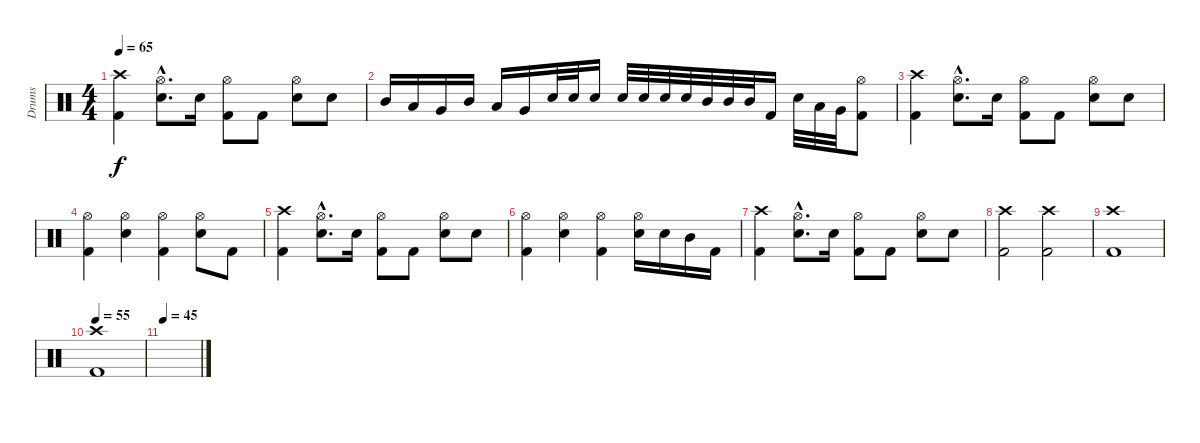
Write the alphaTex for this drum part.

\track ("Drums" "Drums") {instrument percussion}
\staff {score}
\articulation defaults
\ts (4 4)
\tempo 65
\clef neutral
\ks c
("Crash high (hit)" "Kick (hit) 2").4{dy f} ("Hi-Hat (open)"{hac} "Snare (hit) 2"{hac}).8{d} "Snare (hit) 2".16 ("Hi-Hat (open)" "Kick (hit) 2").8 "Kick (hit) 2".8 ("Hi-Hat (open)" "Snare (hit) 2").8 "Snare (hit) 2".8 |
"Mid Tom (hit)".16 "Low Tom (hit)".16 "Very Low Tom (hit)".16 "Mid Tom (hit)".16 "Low Tom (hit)".16 "Very Low Tom (hit)".16 "Snare (hit) 2".32 "Snare (hit) 2".32 "Snare (hit) 2".16 "Snare (hit) 2".32 "Snare (hit) 2".32 "Snare (hit) 2".32 "Snare (hit) 2".32 "Mid Tom (hit)".32 "Mid Tom (hit)".32 "Mid Tom (hit)".32 "Kick (hit) 2".16 "Snare (hit) 2".32 "Low Tom (hit)".32 "Very Low Tom (hit)".32 ("Hi-Hat (open)" "Kick (hit) 2").8 |
("Crash high (hit)" "Kick (hit) 2").4 ("Hi-Hat (open)"{hac} "Snare (hit) 2"{hac}).8{d} "Snare (hit) 2".16 ("Hi-Hat (open)" "Kick (hit) 2").8 "Kick (hit) 2".8 ("Hi-Hat (open)" "Snare (hit) 2").8 "Snare (hit) 2".8 |
("Hi-Hat (open)" "Kick (hit) 2").4 ("Hi-Hat (open)" "Snare (hit) 2").4 ("Hi-Hat (open)" "Kick (hit) 2").4 ("Hi-Hat (open)" "Snare (hit) 2").8 "Kick (hit) 2".8 |
("Crash high (hit)" "Kick (hit) 2").4 ("Hi-Hat (open)"{hac} "Snare (hit) 2"{hac}).8{d} "Snare (hit) 2".16 ("Hi-Hat (open)" "Kick (hit) 2").8 "Kick (hit) 2".8 ("Hi-Hat (open)" "Snare (hit) 2").8 "Snare (hit) 2".8 |
("Hi-Hat (open)" "Kick (hit) 2").4 ("Hi-Hat (open)" "Snare (hit) 2").4 ("Hi-Hat (open)" "Kick (hit) 2").4 ("Hi-Hat (open)" "Snare (hit) 2").16 "Snare (hit) 2".16 "Mid Tom (hit)".16 "Kick (hit) 2".16 |
("Crash high (hit)" "Kick (hit) 2").4 ("Hi-Hat (open)"{hac} "Snare (hit) 2"{hac}).8{d} "Snare (hit) 2".16 ("Hi-Hat (open)" "Kick (hit) 2").8 "Kick (hit) 2".8 ("Hi-Hat (open)" "Snare (hit) 2").8 "Snare (hit) 2".8 |
("Crash high (hit)" "Kick (hit) 2").2 ("Crash high (hit)" "Kick (hit) 2").2 |
("Crash high (hit)" "Kick (hit) 2").1 |
\tempo 55
("Crash high (hit)" "Kick (hit) 2").1 |
\tempo 45
